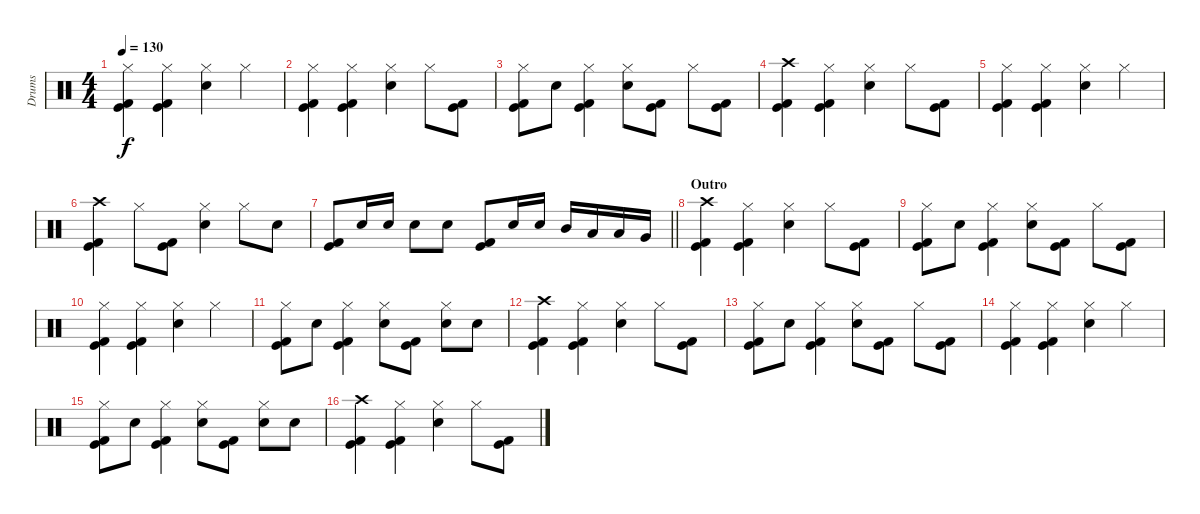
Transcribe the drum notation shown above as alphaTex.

\track ("Drums" "Drums") {instrument percussion}
\staff {score}
\articulation defaults
\ts (4 4)
\tempo 130
\clef neutral
\ks c
("Hi-Hat (closed)" "Kick (hit)" "Kick (hit) 2").4{dy f} ("Hi-Hat (closed)" "Kick (hit)" "Kick (hit) 2").4 ("Hi-Hat (closed)" "Electric Snare (hit)").4 "Hi-Hat (closed)".4 |
("Hi-Hat (closed)" "Kick (hit)" "Kick (hit) 2").4 ("Hi-Hat (closed)" "Kick (hit)" "Kick (hit) 2").4 ("Hi-Hat (closed)" "Electric Snare (hit)").4 "Hi-Hat (closed)".8 ("Kick (hit)" "Kick (hit) 2").8 |
("Hi-Hat (closed)" "Kick (hit)" "Kick (hit) 2").8 "Electric Snare (hit)".8 ("Hi-Hat (closed)" "Kick (hit)" "Kick (hit) 2").4 ("Hi-Hat (closed)" "Electric Snare (hit)").8 ("Kick (hit)" "Kick (hit) 2").8 "Hi-Hat (closed)".8 ("Kick (hit)" "Kick (hit) 2").8 |
("Crash high (hit)" "Kick (hit)" "Kick (hit) 2").4 ("Hi-Hat (closed)" "Kick (hit)" "Kick (hit) 2").4 ("Hi-Hat (closed)" "Electric Snare (hit)").4 "Hi-Hat (closed)".8 ("Kick (hit)" "Kick (hit) 2").8 |
("Hi-Hat (closed)" "Kick (hit)" "Kick (hit) 2").4 ("Hi-Hat (closed)" "Kick (hit)" "Kick (hit) 2").4 ("Hi-Hat (closed)" "Electric Snare (hit)").4 "Hi-Hat (closed)".4 |
("Crash high (hit)" "Kick (hit)" "Kick (hit) 2").4 "Hi-Hat (closed)".8 ("Kick (hit)" "Kick (hit) 2").8 ("Hi-Hat (closed)" "Electric Snare (hit)").4 "Hi-Hat (closed)".8 "Electric Snare (hit)".8 |
\barLineRight lightlight
("Kick (hit)" "Kick (hit) 2").8 "Electric Snare (hit)".16 "Electric Snare (hit)".16 "Electric Snare (hit)".8 "Electric Snare (hit)".8 ("Kick (hit)" "Kick (hit) 2").8 "Electric Snare (hit)".16 "Electric Snare (hit)".16 "Mid Tom (hit)".16 "Low Tom (hit)".16 "Low Tom (hit)".16 "Very Low Tom (hit)".16 |
\section ("" "Outro")
("Crash high (hit)" "Kick (hit)" "Kick (hit) 2").4 ("Hi-Hat (closed)" "Kick (hit)" "Kick (hit) 2").4 ("Hi-Hat (closed)" "Electric Snare (hit)").4 "Hi-Hat (closed)".8 ("Kick (hit)" "Kick (hit) 2").8 |
("Hi-Hat (closed)" "Kick (hit)" "Kick (hit) 2").8 "Electric Snare (hit)".8 ("Hi-Hat (closed)" "Kick (hit)" "Kick (hit) 2").4 ("Hi-Hat (closed)" "Electric Snare (hit)").8 ("Kick (hit)" "Kick (hit) 2").8 "Hi-Hat (closed)".8 ("Kick (hit)" "Kick (hit) 2").8 |
("Hi-Hat (closed)" "Kick (hit)" "Kick (hit) 2").4 ("Hi-Hat (closed)" "Kick (hit)" "Kick (hit) 2").4 ("Hi-Hat (closed)" "Electric Snare (hit)").4 "Hi-Hat (closed)".4 |
("Hi-Hat (closed)" "Kick (hit)" "Kick (hit) 2").8 "Electric Snare (hit)".8 ("Hi-Hat (closed)" "Kick (hit)" "Kick (hit) 2").4 ("Hi-Hat (closed)" "Electric Snare (hit)").8 ("Kick (hit)" "Kick (hit) 2").8 ("Hi-Hat (closed)" "Electric Snare (hit)").8 "Electric Snare (hit)".8 |
("Crash high (hit)" "Kick (hit)" "Kick (hit) 2").4 ("Hi-Hat (closed)" "Kick (hit)" "Kick (hit) 2").4 ("Hi-Hat (closed)" "Electric Snare (hit)").4 "Hi-Hat (closed)".8 ("Kick (hit)" "Kick (hit) 2").8 |
("Hi-Hat (closed)" "Kick (hit)" "Kick (hit) 2").8 "Electric Snare (hit)".8 ("Hi-Hat (closed)" "Kick (hit)" "Kick (hit) 2").4 ("Hi-Hat (closed)" "Electric Snare (hit)").8 ("Kick (hit)" "Kick (hit) 2").8 "Hi-Hat (closed)".8 ("Kick (hit)" "Kick (hit) 2").8 |
("Hi-Hat (closed)" "Kick (hit)" "Kick (hit) 2").4 ("Hi-Hat (closed)" "Kick (hit)" "Kick (hit) 2").4 ("Hi-Hat (closed)" "Electric Snare (hit)").4 "Hi-Hat (closed)".4 |
("Hi-Hat (closed)" "Kick (hit)" "Kick (hit) 2").8 "Electric Snare (hit)".8 ("Hi-Hat (closed)" "Kick (hit)" "Kick (hit) 2").4 ("Hi-Hat (closed)" "Electric Snare (hit)").8 ("Kick (hit)" "Kick (hit) 2").8 ("Hi-Hat (closed)" "Electric Snare (hit)").8 "Electric Snare (hit)".8 |
("Crash high (hit)" "Kick (hit)" "Kick (hit) 2").4 ("Hi-Hat (closed)" "Kick (hit)" "Kick (hit) 2").4 ("Hi-Hat (closed)" "Electric Snare (hit)").4 "Hi-Hat (closed)".8 ("Kick (hit)" "Kick (hit) 2").8
